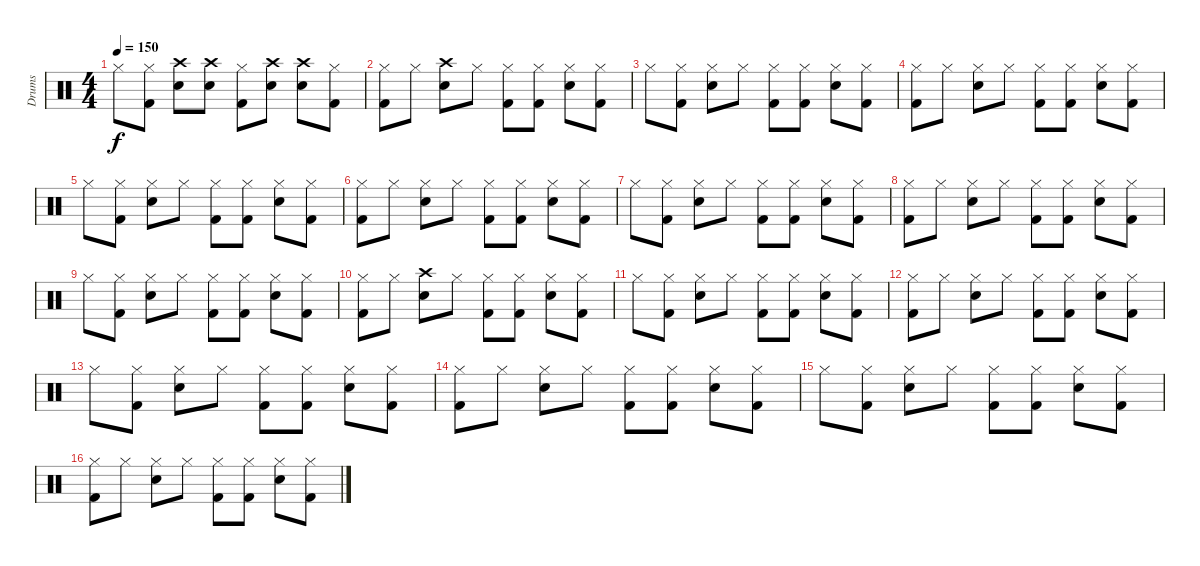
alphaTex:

\track ("Drums" "Drums") {instrument percussion}
\staff {score}
\articulation defaults
\ts (4 4)
\tempo 150
\clef neutral
\ks c "Hi-Hat (closed)".8{dy f}
("Kick (hit) 2" "Hi-Hat (closed)").8 ("Crash high (hit)" "Snare (hit) 2").8 ("Crash high (hit)" "Snare (hit) 2").8 ("Kick (hit) 2" "Hi-Hat (closed)").8 ("Crash high (hit)" "Snare (hit) 2").8 ("Crash high (hit)" "Snare (hit) 2").8 ("Kick (hit) 2" "Hi-Hat (closed)").8 |
("Kick (hit) 2" "Hi-Hat (closed)").8 "Hi-Hat (closed)".8 ("Snare (hit) 2" "Crash high (hit)").8 "Hi-Hat (closed)".8 ("Kick (hit) 2" "Hi-Hat (closed)").8 ("Kick (hit) 2" "Hi-Hat (closed)").8 ("Snare (hit) 2" "Hi-Hat (closed)").8 ("Kick (hit) 2" "Hi-Hat (closed)").8 |
"Hi-Hat (closed)".8 ("Kick (hit) 2" "Hi-Hat (closed)").8 ("Snare (hit) 2" "Hi-Hat (closed)").8 "Hi-Hat (closed)".8 ("Kick (hit) 2" "Hi-Hat (closed)").8 ("Kick (hit) 2" "Hi-Hat (closed)").8 ("Snare (hit) 2" "Hi-Hat (closed)").8 ("Kick (hit) 2" "Hi-Hat (closed)").8 |
("Kick (hit) 2" "Hi-Hat (closed)").8 "Hi-Hat (closed)".8 ("Snare (hit) 2" "Hi-Hat (closed)").8 "Hi-Hat (closed)".8 ("Kick (hit) 2" "Hi-Hat (closed)").8 ("Kick (hit) 2" "Hi-Hat (closed)").8 ("Snare (hit) 2" "Hi-Hat (closed)").8 ("Kick (hit) 2" "Hi-Hat (closed)").8 |
"Hi-Hat (closed)".8 ("Kick (hit) 2" "Hi-Hat (closed)").8 ("Snare (hit) 2" "Hi-Hat (closed)").8 "Hi-Hat (closed)".8 ("Kick (hit) 2" "Hi-Hat (closed)").8 ("Kick (hit) 2" "Hi-Hat (closed)").8 ("Snare (hit) 2" "Hi-Hat (closed)").8 ("Kick (hit) 2" "Hi-Hat (closed)").8 |
("Kick (hit) 2" "Hi-Hat (closed)").8 "Hi-Hat (closed)".8 ("Snare (hit) 2" "Hi-Hat (closed)").8 "Hi-Hat (closed)".8 ("Kick (hit) 2" "Hi-Hat (closed)").8 ("Kick (hit) 2" "Hi-Hat (closed)").8 ("Snare (hit) 2" "Hi-Hat (closed)").8 ("Kick (hit) 2" "Hi-Hat (closed)").8 |
"Hi-Hat (closed)".8 ("Kick (hit) 2" "Hi-Hat (closed)").8 ("Snare (hit) 2" "Hi-Hat (closed)").8 "Hi-Hat (closed)".8 ("Kick (hit) 2" "Hi-Hat (closed)").8 ("Kick (hit) 2" "Hi-Hat (closed)").8 ("Snare (hit) 2" "Hi-Hat (closed)").8 ("Kick (hit) 2" "Hi-Hat (closed)").8 |
("Kick (hit) 2" "Hi-Hat (closed)").8 "Hi-Hat (closed)".8 ("Snare (hit) 2" "Hi-Hat (closed)").8 "Hi-Hat (closed)".8 ("Kick (hit) 2" "Hi-Hat (closed)").8 ("Kick (hit) 2" "Hi-Hat (closed)").8 ("Snare (hit) 2" "Hi-Hat (closed)").8 ("Kick (hit) 2" "Hi-Hat (closed)").8 |
"Hi-Hat (closed)".8 ("Kick (hit) 2" "Hi-Hat (closed)").8 ("Snare (hit) 2" "Hi-Hat (closed)").8 "Hi-Hat (closed)".8 ("Kick (hit) 2" "Hi-Hat (closed)").8 ("Kick (hit) 2" "Hi-Hat (closed)").8 ("Snare (hit) 2" "Hi-Hat (closed)").8 ("Kick (hit) 2" "Hi-Hat (closed)").8 |
("Kick (hit) 2" "Hi-Hat (closed)").8 "Hi-Hat (closed)".8 ("Snare (hit) 2" "Crash high (hit)").8 "Hi-Hat (closed)".8 ("Kick (hit) 2" "Hi-Hat (closed)").8 ("Kick (hit) 2" "Hi-Hat (closed)").8 ("Snare (hit) 2" "Hi-Hat (closed)").8 ("Kick (hit) 2" "Hi-Hat (closed)").8 |
"Hi-Hat (closed)".8 ("Kick (hit) 2" "Hi-Hat (closed)").8 ("Snare (hit) 2" "Hi-Hat (closed)").8 "Hi-Hat (closed)".8 ("Kick (hit) 2" "Hi-Hat (closed)").8 ("Kick (hit) 2" "Hi-Hat (closed)").8 ("Snare (hit) 2" "Hi-Hat (closed)").8 ("Kick (hit) 2" "Hi-Hat (closed)").8 |
("Kick (hit) 2" "Hi-Hat (closed)").8 "Hi-Hat (closed)".8 ("Snare (hit) 2" "Hi-Hat (closed)").8 "Hi-Hat (closed)".8 ("Kick (hit) 2" "Hi-Hat (closed)").8 ("Kick (hit) 2" "Hi-Hat (closed)").8 ("Snare (hit) 2" "Hi-Hat (closed)").8 ("Kick (hit) 2" "Hi-Hat (closed)").8 |
"Hi-Hat (closed)".8 ("Kick (hit) 2" "Hi-Hat (closed)").8 ("Snare (hit) 2" "Hi-Hat (closed)").8 "Hi-Hat (closed)".8 ("Kick (hit) 2" "Hi-Hat (closed)").8 ("Kick (hit) 2" "Hi-Hat (closed)").8 ("Snare (hit) 2" "Hi-Hat (closed)").8 ("Kick (hit) 2" "Hi-Hat (closed)").8 |
("Kick (hit) 2" "Hi-Hat (closed)").8 "Hi-Hat (closed)".8 ("Snare (hit) 2" "Hi-Hat (closed)").8 "Hi-Hat (closed)".8 ("Kick (hit) 2" "Hi-Hat (closed)").8 ("Kick (hit) 2" "Hi-Hat (closed)").8 ("Snare (hit) 2" "Hi-Hat (closed)").8 ("Kick (hit) 2" "Hi-Hat (closed)").8 |
"Hi-Hat (closed)".8 ("Kick (hit) 2" "Hi-Hat (closed)").8 ("Snare (hit) 2" "Hi-Hat (closed)").8 "Hi-Hat (closed)".8 ("Kick (hit) 2" "Hi-Hat (closed)").8 ("Kick (hit) 2" "Hi-Hat (closed)").8 ("Snare (hit) 2" "Hi-Hat (closed)").8 ("Kick (hit) 2" "Hi-Hat (closed)").8 |
("Kick (hit) 2" "Hi-Hat (closed)").8 "Hi-Hat (closed)".8 ("Snare (hit) 2" "Hi-Hat (closed)").8 "Hi-Hat (closed)".8 ("Kick (hit) 2" "Hi-Hat (closed)").8 ("Kick (hit) 2" "Hi-Hat (closed)").8 ("Snare (hit) 2" "Hi-Hat (closed)").8 ("Kick (hit) 2" "Hi-Hat (closed)").8
